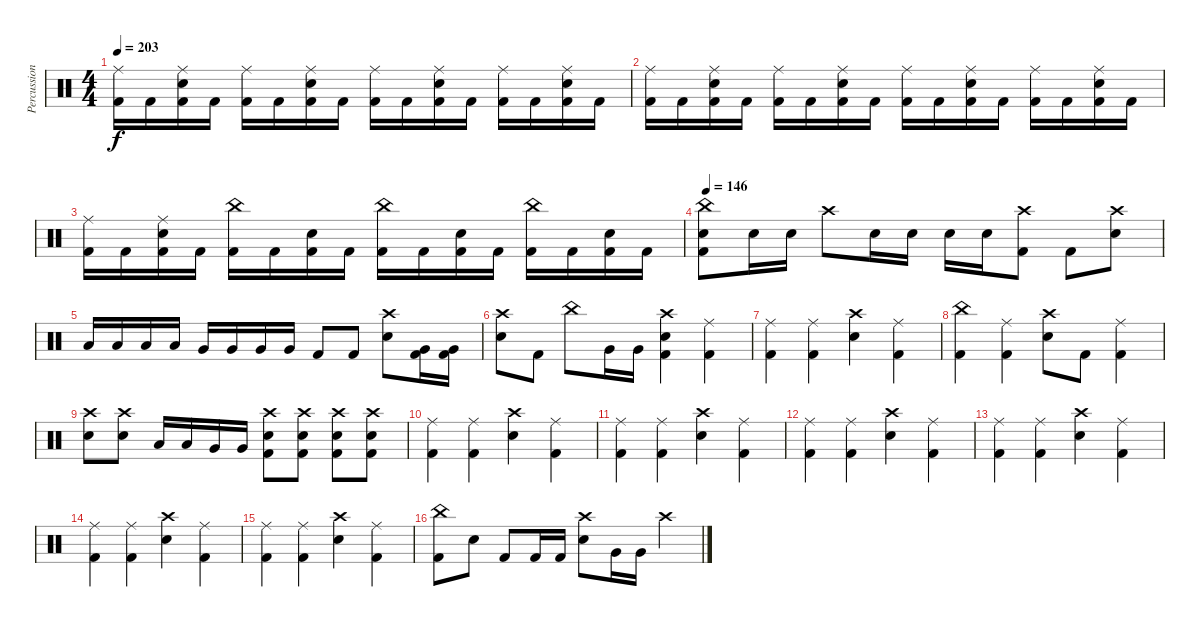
\track ("Percussion" "Percussion") {instrument percussion}
\staff {score}
\articulation defaults
\ts (4 4)
\tempo 203
\clef neutral
\ks c
("Ride (middle)" "Kick (hit) 2").16{dy f} "Kick (hit) 2".16 ("Ride (middle)" "Snare (hit) 2" "Kick (hit) 2").16 "Kick (hit) 2".16 ("Ride (middle)" "Kick (hit) 2").16 "Kick (hit) 2".16 ("Ride (middle)" "Snare (hit) 2" "Kick (hit) 2").16 "Kick (hit) 2".16 ("Ride (middle)" "Kick (hit) 2").16 "Kick (hit) 2".16 ("Ride (middle)" "Snare (hit) 2" "Kick (hit) 2").16 "Kick (hit) 2".16 ("Ride (middle)" "Kick (hit) 2").16 "Kick (hit) 2".16 ("Ride (middle)" "Snare (hit) 2" "Kick (hit) 2").16 "Kick (hit) 2".16 |
("Ride (middle)" "Kick (hit) 2").16 "Kick (hit) 2".16 ("Ride (middle)" "Snare (hit) 2" "Kick (hit) 2").16 "Kick (hit) 2".16 ("Ride (middle)" "Kick (hit) 2").16 "Kick (hit) 2".16 ("Ride (middle)" "Snare (hit) 2" "Kick (hit) 2").16 "Kick (hit) 2".16 ("Ride (middle)" "Kick (hit) 2").16 "Kick (hit) 2".16 ("Ride (middle)" "Snare (hit) 2" "Kick (hit) 2").16 "Kick (hit) 2".16 ("Ride (middle)" "Kick (hit) 2").16 "Kick (hit) 2".16 ("Ride (middle)" "Snare (hit) 2" "Kick (hit) 2").16 "Kick (hit) 2".16 |
("Ride (middle)" "Kick (hit) 2").16 "Kick (hit) 2".16 ("Ride (middle)" "Snare (hit) 2" "Kick (hit) 2").16 "Kick (hit) 2".16 ("China (hit)" "Kick (hit) 2").16 "Kick (hit) 2".16 ("Snare (hit) 2" "Kick (hit) 2").16 "Kick (hit) 2".16 ("China (hit)" "Kick (hit) 2").16 "Kick (hit) 2".16 ("Snare (hit) 2" "Kick (hit) 2").16 "Kick (hit) 2".16 ("China (hit)" "Kick (hit) 2").16 "Kick (hit) 2".16 ("Snare (hit) 2" "Kick (hit) 2").16 "Kick (hit) 2".16 |
\tempo 146
("China (hit)" "Snare (hit) 2" "Kick (hit) 2").8 "Snare (hit) 2".16 "Snare (hit) 2".16 "Crash high (hit)".8 "Snare (hit) 2".16 "Snare (hit) 2".16 "Snare (hit) 2".16 "Snare (hit) 2".16 ("Crash high (hit)" "Kick (hit) 2").8 "Kick (hit) 2".8 ("Crash high (hit)" "Snare (hit) 2").8 |
"Low Tom (hit)".16 "Low Tom (hit)".16 "Low Tom (hit)".16 "Low Tom (hit)".16 "Very Low Tom (hit)".16 "Very Low Tom (hit)".16 "Very Low Tom (hit)".16 "Very Low Tom (hit)".16 "Kick (hit) 2".8 "Kick (hit) 2".8 ("Crash high (hit)" "Snare (hit) 2").8 ("Very Low Tom (hit)" "Kick (hit) 2").16 ("Very Low Tom (hit)" "Kick (hit) 2").16 |
("Crash high (hit)" "Snare (hit) 2").8 "Kick (hit) 2".8 "China (hit)".8 "Very Low Tom (hit)".16 "Very Low Tom (hit)".16 ("Crash high (hit)" "Snare (hit) 2" "Kick (hit) 2").4 ("Ride (middle)" "Kick (hit) 2").4 |
("Ride (middle)" "Kick (hit) 2").4 ("Ride (middle)" "Kick (hit) 2").4 ("Crash high (hit)" "Snare (hit) 2").4 ("Ride (middle)" "Kick (hit) 2").4 |
("China (hit)" "Kick (hit) 2").4 ("Ride (middle)" "Kick (hit) 2").4 ("Crash high (hit)" "Snare (hit) 2").8 "Kick (hit) 2".8 ("Ride (middle)" "Kick (hit) 2").4 |
("Crash high (hit)" "Snare (hit) 2").8 ("Crash high (hit)" "Snare (hit) 2").8 "Low Tom (hit)".16 "Low Tom (hit)".16 "Very Low Tom (hit)".16 "Very Low Tom (hit)".16 ("Crash high (hit)" "Snare (hit) 2" "Kick (hit) 2").8 ("Crash high (hit)" "Snare (hit) 2" "Kick (hit) 2").8 ("Crash high (hit)" "Snare (hit) 2" "Kick (hit) 2").8 ("Crash high (hit)" "Snare (hit) 2" "Kick (hit) 2").8 |
("Ride (middle)" "Kick (hit) 2").4 ("Ride (middle)" "Kick (hit) 2").4 ("Crash high (hit)" "Snare (hit) 2").4 ("Ride (middle)" "Kick (hit) 2").4 |
("Ride (middle)" "Kick (hit) 2").4 ("Ride (middle)" "Kick (hit) 2").4 ("Crash high (hit)" "Snare (hit) 2").4 ("Ride (middle)" "Kick (hit) 2").4 |
("Ride (middle)" "Kick (hit) 2").4 ("Ride (middle)" "Kick (hit) 2").4 ("Crash high (hit)" "Snare (hit) 2").4 ("Ride (middle)" "Kick (hit) 2").4 |
("Ride (middle)" "Kick (hit) 2").4 ("Ride (middle)" "Kick (hit) 2").4 ("Crash high (hit)" "Snare (hit) 2").4 ("Ride (middle)" "Kick (hit) 2").4 |
("Ride (middle)" "Kick (hit) 2").4 ("Ride (middle)" "Kick (hit) 2").4 ("Crash high (hit)" "Snare (hit) 2").4 ("Ride (middle)" "Kick (hit) 2").4 |
("Ride (middle)" "Kick (hit) 2").4 ("Ride (middle)" "Kick (hit) 2").4 ("Crash high (hit)" "Snare (hit) 2").4 ("Ride (middle)" "Kick (hit) 2").4 |
("China (hit)" "Kick (hit) 2").8 "Snare (hit) 2".8 "Kick (hit) 2".8 "Kick (hit) 2".16 "Kick (hit) 2".16 ("Crash high (hit)" "Snare (hit) 2").8 "Very Low Tom (hit)".16 "Very Low Tom (hit)".16 "Crash high (hit)".4
